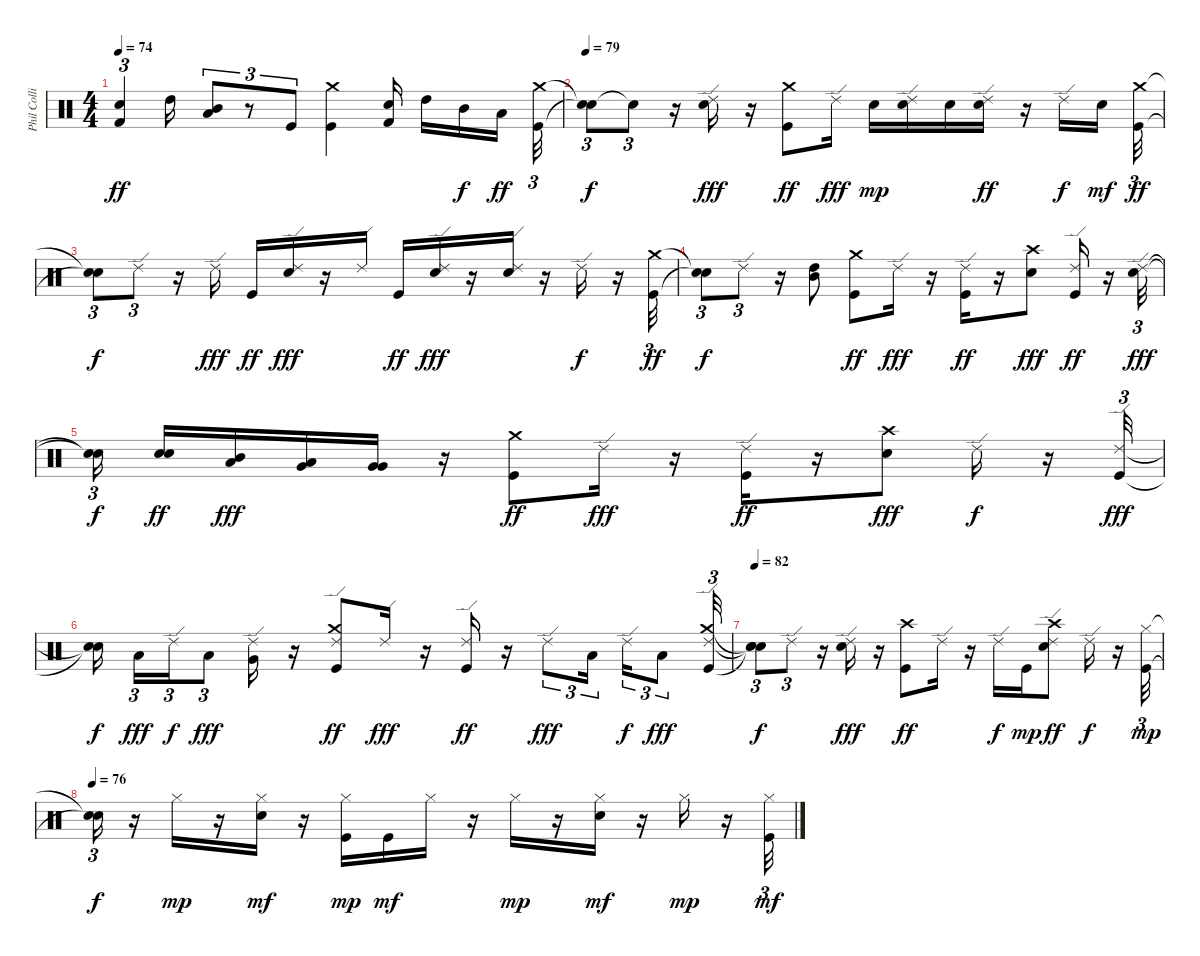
\track ("Phil Collins" "Phil Colli") {instrument percussion}
\staff {score}
\articulation defaults
\ts (4 4)
\tempo 74
\clef neutral
\ks c
("Kick (hit) 2" "Snare (hit) 2").4{tu (3 2) dy ff} "High Tom (hit)".16 ("Low Tom (hit)" "Mid Tom (hit)").8{tu (3 2)} r.8{tu (3 2)} "Kick (hit)".8{tu (3 2)} ("Crash medium (hit)" "Kick (hit)").4 ("Kick (hit) 2" "Snare (hit) 2").16 "High Tom (hit)".16 "Mid Tom (hit)".16{dy f} "Low Tom (hit)".16{dy ff beam splitsecondary} ("Crash medium (hit)" "Kick (hit)").32{tu (3 2)} |
\tempo 79
("Snare (hit)"{t} "Snare (hit)"{t}).8{tu (3 2) dy f} "Snare (hit)"{t}.8{tu (3 2)} r.16 ("Snare (hit) 2" "Ride (edge) 2").16{dy fff} r.16 ("Crash medium (hit)" "Kick (hit)").8{dy ff} "Ride (edge) 2".16{dy fff} "Snare (hit) 2".16{dy mp} ("Ride (edge) 2" "Snare (hit) 2").16 "Snare (hit) 2".16 ("Ride (edge) 2" "Snare (hit) 2").16{dy ff} r.16 "Ride (edge) 2".16{dy f} "Snare (hit) 2".16{dy mf beam splitsecondary} ("Crash medium (hit)" "Kick (hit)").32{tu (3 2) dy ff} |
("Snare (hit)"{t} "Snare (hit)"{t}).8{tu (3 2) dy f} "Ride (edge) 2".8{tu (3 2)} r.16 "Ride (edge) 2".16{dy fff} "Kick (hit)".16{dy ff} ("Snare (hit) 2" "Ride (edge) 2").16{dy fff} r.16 "Ride (edge) 2".16 "Kick (hit)".16{dy ff} ("Snare (hit) 2" "Ride (edge) 2").16{dy fff} r.16 ("Snare (hit) 2" "Ride (edge) 2").16 r.16 "Ride (edge) 2".16{dy f} r.16 ("Crash medium (hit)" "Kick (hit)").32{tu (3 2) dy ff} |
("Snare (hit)"{t} "Snare (hit)"{t}).8{tu (3 2) dy f} "Ride (edge) 2".8{tu (3 2)} r.16 ("Mid Tom (hit)" "High Tom (hit)").8 ("Crash medium (hit)" "Kick (hit)").8{dy ff} "Ride (edge) 2".16{dy fff} r.16 ("Kick (hit)" "Ride (edge) 2").16{dy ff} r.16 ("Crash high (hit)" "Snare (hit) 2").8{dy fff} ("Kick (hit)" "Ride (edge) 2").16{dy ff} r.16 ("Ride (edge) 2" "Snare (hit) 2").32{tu (3 2) dy fff} |
("Snare (hit)"{t} "Snare (hit)"{t}).16{tu (3 2) dy f beam splitsecondary} ("Snare (hit) 2" "Snare (hit) 2").16{dy ff} ("Mid Tom (hit)" "Low Tom (hit)").16{dy fff} ("Low Tom (hit)" "Very Low Tom (hit)").16 ("Very Low Tom (hit)" "Very Low Tom (hit)").16 r.16 ("Crash medium (hit)" "Kick (hit)").8{dy ff} "Ride (edge) 2".16{dy fff} r.16 ("Kick (hit)" "Ride (edge) 2").16{dy ff} r.16 ("Crash high (hit)" "Snare (hit) 2").8{dy fff} "Ride (edge) 2".16{dy f} r.16 ("Kick (hit)" "Ride (edge) 2").32{tu (3 2) dy fff} |
("Snare (hit)"{t} "Snare (hit)"{t}).16{dy f beam splitsecondary} "Low Tom (hit)".16{tu (3 2) dy fff} "Ride (edge) 2".16{tu (3 2) dy f} "Low Tom (hit)".8{tu (3 2) dy fff} ("Very Low Tom (hit)" "Ride (edge) 2").16 r.16 ("Crash medium (hit)" "Kick (hit)" "Ride (edge) 2").8{dy ff} "Ride (edge) 2".16{dy fff} r.16 ("Kick (hit)" "Ride (edge) 2").16{dy ff} r.16 "Ride (edge) 2".8{tu (3 2) dy fff} "Low Tom (hit)".16{tu (3 2) beam splitsecondary} "Ride (edge) 2".16{tu (3 2) dy f} "Low Tom (hit)".8{tu (3 2) dy fff} ("Crash medium (hit)" "Kick (hit)" "Ride (edge) 2").32{tu (3 2)} |
\tempo 82
("Snare (hit)"{t} "Snare (hit)"{t} "Snare (hit)"{t}).8{tu (3 2) dy f} "Ride (edge) 2".8{tu (3 2)} r.16 ("Snare (hit) 2" "Ride (edge) 2").16{dy fff} r.16 ("Crash high (hit)" "Kick (hit)").8{dy ff} "Ride (edge) 2".16 r.16 "Ride (edge) 2".16{dy f} "Kick (hit)".16{dy mp} ("Crash high (hit)" "Ride (edge) 2" "Snare (hit) 2").8{dy ff} "Ride (edge) 2".16{dy f} r.16 ("Kick (hit)" "Hi-Hat (closed)").32{tu (3 2) dy mp} |
\tempo 76
("Snare (hit)"{t} "Snare (hit)"{t}).16{tu (3 2) dy f} r.16 "Hi-Hat (closed)".16{dy mp} r.16 ("Snare (hit) 2" "Hi-Hat (closed)").16{dy mf} r.16 ("Kick (hit)" "Hi-Hat (closed)").16{dy mp} "Kick (hit)".16{dy mf} "Hi-Hat (closed)".16 r.16 "Hi-Hat (closed)".16{dy mp} r.16 ("Snare (hit) 2" "Hi-Hat (closed)").16{dy mf} r.16 "Hi-Hat (closed)".16{dy mp} r.16 ("Kick (hit)" "Hi-Hat (closed)").32{tu (3 2) dy mf}
